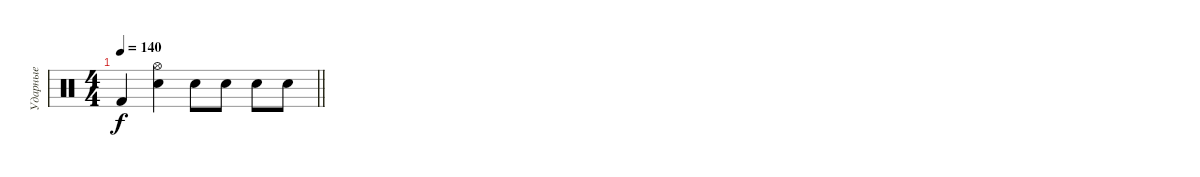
\track ("Ударные" "Ударные") {instrument percussion}
\staff {score}
\articulation defaults
\ts (4 4)
\tempo 140
\clef neutral
\barLineRight lightlight
\ks c "Kick (hit) 2".4{dy f}
("Electric Snare (hit)" "Hi-Hat (open)").4 "Electric Snare (hit)".8 "Electric Snare (hit)".8 "Electric Snare (hit)".8 "Electric Snare (hit)".8
